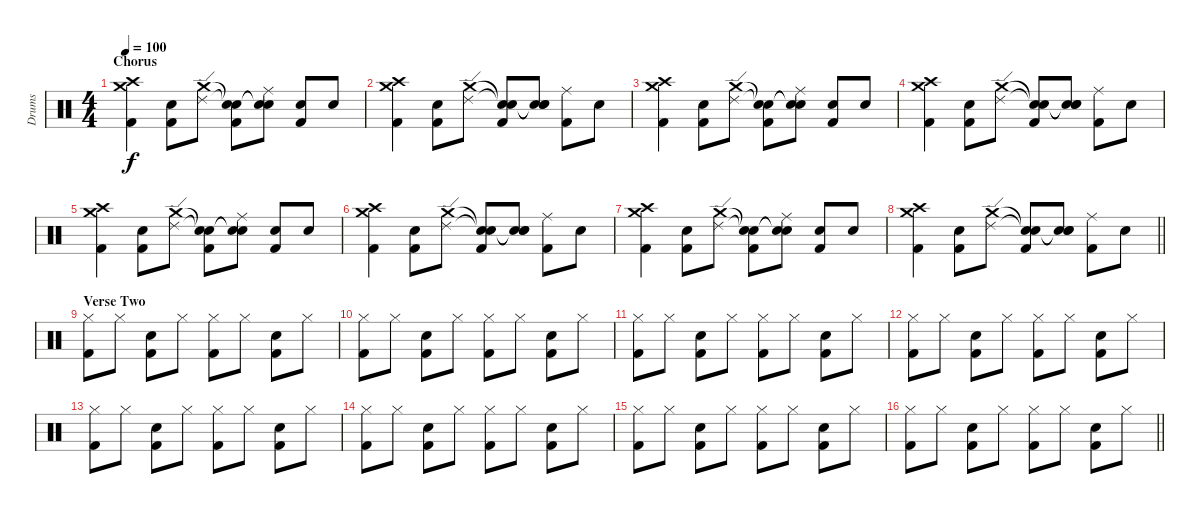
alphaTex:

\track ("Drums" "Drums") {instrument percussion}
\staff {score}
\articulation defaults
\ts (4 4)
\section ("" "Chorus")
\tempo 100
\clef neutral
\ks c
("Crash medium (hit)" "Crash high (hit)" "Kick (hit) 2").4{dy f} ("Snare (hit) 2" "Kick (hit) 2").8 ("Crash medium (hit)" "Ride (edge) 2").8 ("Snare (hit)"{t} "Snare (hit)"{t} "Kick (hit) 2").8 ("Snare (hit)"{t} "Snare (hit)"{t} "Ride (middle)").8 ("Snare (hit) 2" "Kick (hit) 2").8 "Snare (hit) 2".8 |
("Crash medium (hit)" "Crash high (hit)" "Kick (hit) 2").4 ("Snare (hit) 2" "Kick (hit) 2").8 ("Crash medium (hit)" "Ride (edge) 2").8 ("Snare (hit)"{t} "Snare (hit)"{t} "Kick (hit) 2").8 ("Snare (hit)"{t} "Snare (hit)"{t} "Snare (hit) 2").8 ("Ride (middle)" "Kick (hit) 2").8 "Snare (hit) 2".8 |
("Crash medium (hit)" "Crash high (hit)" "Kick (hit) 2").4 ("Snare (hit) 2" "Kick (hit) 2").8 ("Crash medium (hit)" "Ride (edge) 2").8 ("Snare (hit)"{t} "Snare (hit)"{t} "Kick (hit) 2").8 ("Snare (hit)"{t} "Snare (hit)"{t} "Ride (middle)").8 ("Snare (hit) 2" "Kick (hit) 2").8 "Snare (hit) 2".8 |
("Crash medium (hit)" "Crash high (hit)" "Kick (hit) 2").4 ("Snare (hit) 2" "Kick (hit) 2").8 ("Crash medium (hit)" "Ride (edge) 2").8 ("Snare (hit)"{t} "Snare (hit)"{t} "Kick (hit) 2").8 ("Snare (hit)"{t} "Snare (hit)"{t} "Snare (hit) 2").8 ("Ride (middle)" "Kick (hit) 2").8 "Snare (hit) 2".8 |
("Crash medium (hit)" "Crash high (hit)" "Kick (hit) 2").4 ("Snare (hit) 2" "Kick (hit) 2").8 ("Crash medium (hit)" "Ride (edge) 2").8 ("Snare (hit)"{t} "Snare (hit)"{t} "Kick (hit) 2").8 ("Snare (hit)"{t} "Snare (hit)"{t} "Ride (middle)").8 ("Snare (hit) 2" "Kick (hit) 2").8 "Snare (hit) 2".8 |
("Crash medium (hit)" "Crash high (hit)" "Kick (hit) 2").4 ("Snare (hit) 2" "Kick (hit) 2").8 ("Crash medium (hit)" "Ride (edge) 2").8 ("Snare (hit)"{t} "Snare (hit)"{t} "Kick (hit) 2").8 ("Snare (hit)"{t} "Snare (hit)"{t} "Snare (hit) 2").8 ("Ride (middle)" "Kick (hit) 2").8 "Snare (hit) 2".8 |
("Crash medium (hit)" "Crash high (hit)" "Kick (hit) 2").4 ("Snare (hit) 2" "Kick (hit) 2").8 ("Crash medium (hit)" "Ride (edge) 2").8 ("Snare (hit)"{t} "Snare (hit)"{t} "Kick (hit) 2").8 ("Snare (hit)"{t} "Snare (hit)"{t} "Ride (middle)").8 ("Snare (hit) 2" "Kick (hit) 2").8 "Snare (hit) 2".8 |
\barLineRight lightlight
("Crash medium (hit)" "Crash high (hit)" "Kick (hit) 2").4 ("Snare (hit) 2" "Kick (hit) 2").8 ("Crash medium (hit)" "Ride (edge) 2").8 ("Snare (hit)"{t} "Snare (hit)"{t} "Kick (hit) 2").8 ("Snare (hit)"{t} "Snare (hit)"{t} "Snare (hit) 2").8 ("Ride (middle)" "Kick (hit) 2").8 "Snare (hit) 2".8 |
\section ("" "Verse Two")
("Hi-Hat (closed)" "Kick (hit) 2").8 "Hi-Hat (closed)".8 ("Snare (hit) 2" "Kick (hit) 2").8 "Hi-Hat (closed)".8 ("Hi-Hat (closed)" "Kick (hit) 2").8 "Hi-Hat (closed)".8 ("Snare (hit) 2" "Kick (hit) 2").8 "Hi-Hat (closed)".8 |
("Hi-Hat (closed)" "Kick (hit) 2").8 "Hi-Hat (closed)".8 ("Snare (hit) 2" "Kick (hit) 2").8 "Hi-Hat (closed)".8 ("Hi-Hat (closed)" "Kick (hit) 2").8 "Hi-Hat (closed)".8 ("Snare (hit) 2" "Kick (hit) 2").8 "Hi-Hat (closed)".8 |
("Hi-Hat (closed)" "Kick (hit) 2").8 "Hi-Hat (closed)".8 ("Snare (hit) 2" "Kick (hit) 2").8 "Hi-Hat (closed)".8 ("Hi-Hat (closed)" "Kick (hit) 2").8 "Hi-Hat (closed)".8 ("Snare (hit) 2" "Kick (hit) 2").8 "Hi-Hat (closed)".8 |
("Hi-Hat (closed)" "Kick (hit) 2").8 "Hi-Hat (closed)".8 ("Snare (hit) 2" "Kick (hit) 2").8 "Hi-Hat (closed)".8 ("Hi-Hat (closed)" "Kick (hit) 2").8 "Hi-Hat (closed)".8 ("Snare (hit) 2" "Kick (hit) 2").8 "Hi-Hat (closed)".8 |
("Hi-Hat (closed)" "Kick (hit) 2").8 "Hi-Hat (closed)".8 ("Snare (hit) 2" "Kick (hit) 2").8 "Hi-Hat (closed)".8 ("Hi-Hat (closed)" "Kick (hit) 2").8 "Hi-Hat (closed)".8 ("Snare (hit) 2" "Kick (hit) 2").8 "Hi-Hat (closed)".8 |
("Hi-Hat (closed)" "Kick (hit) 2").8 "Hi-Hat (closed)".8 ("Snare (hit) 2" "Kick (hit) 2").8 "Hi-Hat (closed)".8 ("Hi-Hat (closed)" "Kick (hit) 2").8 "Hi-Hat (closed)".8 ("Snare (hit) 2" "Kick (hit) 2").8 "Hi-Hat (closed)".8 |
("Hi-Hat (closed)" "Kick (hit) 2").8 "Hi-Hat (closed)".8 ("Snare (hit) 2" "Kick (hit) 2").8 "Hi-Hat (closed)".8 ("Hi-Hat (closed)" "Kick (hit) 2").8 "Hi-Hat (closed)".8 ("Snare (hit) 2" "Kick (hit) 2").8 "Hi-Hat (closed)".8 |
\barLineRight lightlight
("Hi-Hat (closed)" "Kick (hit) 2").8 "Hi-Hat (closed)".8 ("Snare (hit) 2" "Kick (hit) 2").8 "Hi-Hat (closed)".8 ("Hi-Hat (closed)" "Kick (hit) 2").8 "Hi-Hat (closed)".8 ("Snare (hit) 2" "Kick (hit) 2").8 "Hi-Hat (closed)".8
